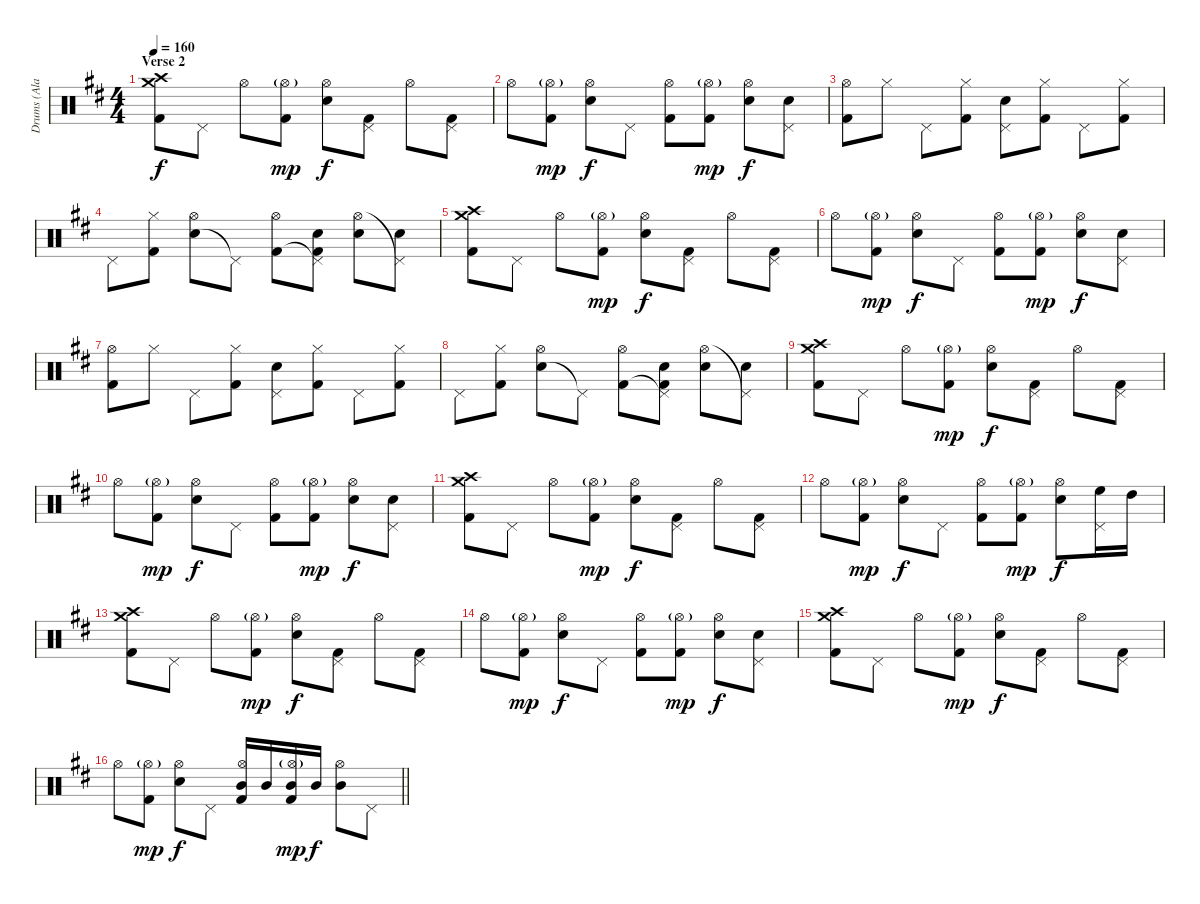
\track ("Drums (Ala Pyle)" "Drums (Ala") {instrument percussion}
\staff {score}
\articulation defaults
\ts (4 4)
\section ("" "Verse 2")
\tempo 160
\clef neutral
\ks d
("Crash medium (hit)" "Crash high (hit)" "Kick (hit) 2").8{dy f} "Pedal Hi-Hat (hit)".8 "Hi-Hat (open)".8 ("Hi-Hat (open)"{g} "Kick (hit) 2").8{dy mp} ("Snare (hit) 2" "Hi-Hat (open)").8{dy f} ("Pedal Hi-Hat (hit)" "Kick (hit) 2").8 "Hi-Hat (open)".8 ("Pedal Hi-Hat (hit)" "Kick (hit) 2").8 |
"Hi-Hat (open)".8 ("Hi-Hat (open)"{g} "Kick (hit) 2").8{dy mp} ("Snare (hit) 2" "Hi-Hat (open)").8{dy f} "Pedal Hi-Hat (hit)".8 ("Hi-Hat (open)" "Kick (hit) 2").8 ("Hi-Hat (open)"{g} "Kick (hit) 2").8{dy mp} ("Snare (hit) 2" "Hi-Hat (open)").8{dy f} ("Snare (hit) 2" "Pedal Hi-Hat (hit)").8 |
("Hi-Hat (open)" "Kick (hit) 2").8 "Hi-Hat (closed)".8 "Pedal Hi-Hat (hit)".8 ("Hi-Hat (closed)" "Kick (hit) 2").8 ("Snare (hit) 2" "Pedal Hi-Hat (hit)").8 ("Hi-Hat (closed)" "Kick (hit) 2").8 "Pedal Hi-Hat (hit)".8 ("Hi-Hat (closed)" "Kick (hit) 2").8 |
"Pedal Hi-Hat (hit)".8 ("Hi-Hat (closed)" "Kick (hit) 2").8 ("Snare (hit) 2" "Hi-Hat (open)").8 "Pedal Hi-Hat (hit)"{t}.8 ("Hi-Hat (open)" "Kick (hit) 2").8 ("Snare (hit) 2" "Pedal Hi-Hat (hit)"{t} "Kick (hit) 2").8 ("Snare (hit) 2" "Hi-Hat (open)").8 ("Snare (hit) 2" "Pedal Hi-Hat (hit)"{t}).8 |
("Crash medium (hit)" "Crash high (hit)" "Kick (hit) 2").8 "Pedal Hi-Hat (hit)".8 "Hi-Hat (open)".8 ("Hi-Hat (open)"{g} "Kick (hit) 2").8{dy mp} ("Snare (hit) 2" "Hi-Hat (open)").8{dy f} ("Pedal Hi-Hat (hit)" "Kick (hit) 2").8 "Hi-Hat (open)".8 ("Pedal Hi-Hat (hit)" "Kick (hit) 2").8 |
"Hi-Hat (open)".8 ("Hi-Hat (open)"{g} "Kick (hit) 2").8{dy mp} ("Snare (hit) 2" "Hi-Hat (open)").8{dy f} "Pedal Hi-Hat (hit)".8 ("Hi-Hat (open)" "Kick (hit) 2").8 ("Hi-Hat (open)"{g} "Kick (hit) 2").8{dy mp} ("Snare (hit) 2" "Hi-Hat (open)").8{dy f} ("Snare (hit) 2" "Pedal Hi-Hat (hit)").8 |
("Hi-Hat (open)" "Kick (hit) 2").8 "Hi-Hat (closed)".8 "Pedal Hi-Hat (hit)".8 ("Hi-Hat (closed)" "Kick (hit) 2").8 ("Snare (hit) 2" "Pedal Hi-Hat (hit)").8 ("Hi-Hat (closed)" "Kick (hit) 2").8 "Pedal Hi-Hat (hit)".8 ("Hi-Hat (closed)" "Kick (hit) 2").8 |
"Pedal Hi-Hat (hit)".8 ("Hi-Hat (closed)" "Kick (hit) 2").8 ("Snare (hit) 2" "Hi-Hat (open)").8 "Pedal Hi-Hat (hit)"{t}.8 ("Hi-Hat (open)" "Kick (hit) 2").8 ("Snare (hit) 2" "Pedal Hi-Hat (hit)"{t} "Kick (hit) 2").8 ("Snare (hit) 2" "Hi-Hat (open)").8 ("Snare (hit) 2" "Pedal Hi-Hat (hit)"{t}).8 |
("Crash medium (hit)" "Crash high (hit)" "Kick (hit) 2").8 "Pedal Hi-Hat (hit)".8 "Hi-Hat (open)".8 ("Hi-Hat (open)"{g} "Kick (hit) 2").8{dy mp} ("Snare (hit) 2" "Hi-Hat (open)").8{dy f} ("Pedal Hi-Hat (hit)" "Kick (hit) 2").8 "Hi-Hat (open)".8 ("Pedal Hi-Hat (hit)" "Kick (hit) 2").8 |
"Hi-Hat (open)".8 ("Hi-Hat (open)"{g} "Kick (hit) 2").8{dy mp} ("Snare (hit) 2" "Hi-Hat (open)").8{dy f} "Pedal Hi-Hat (hit)".8 ("Hi-Hat (open)" "Kick (hit) 2").8 ("Hi-Hat (open)"{g} "Kick (hit) 2").8{dy mp} ("Snare (hit) 2" "Hi-Hat (open)").8{dy f} ("Snare (hit) 2" "Pedal Hi-Hat (hit)").8 |
("Crash medium (hit)" "Crash high (hit)" "Kick (hit) 2").8 "Pedal Hi-Hat (hit)".8 "Hi-Hat (open)".8 ("Hi-Hat (open)"{g} "Kick (hit) 2").8{dy mp} ("Snare (hit) 2" "Hi-Hat (open)").8{dy f} ("Pedal Hi-Hat (hit)" "Kick (hit) 2").8 "Hi-Hat (open)".8 ("Pedal Hi-Hat (hit)" "Kick (hit) 2").8 |
"Hi-Hat (open)".8 ("Hi-Hat (open)"{g} "Kick (hit) 2").8{dy mp} ("Snare (hit) 2" "Hi-Hat (open)").8{dy f} "Pedal Hi-Hat (hit)".8 ("Hi-Hat (open)" "Kick (hit) 2").8 ("Hi-Hat (open)"{g} "Kick (hit) 2").8{dy mp} ("Snare (hit) 2" "Hi-Hat (open)").8{dy f} ("Pedal Hi-Hat (hit)" "High Floor Tom (hit)").16 "High Tom (hit)".16 |
("Crash medium (hit)" "Crash high (hit)" "Kick (hit) 2").8 "Pedal Hi-Hat (hit)".8 "Hi-Hat (open)".8 ("Hi-Hat (open)"{g} "Kick (hit) 2").8{dy mp} ("Snare (hit) 2" "Hi-Hat (open)").8{dy f} ("Pedal Hi-Hat (hit)" "Kick (hit) 2").8 "Hi-Hat (open)".8 ("Pedal Hi-Hat (hit)" "Kick (hit) 2").8 |
"Hi-Hat (open)".8 ("Hi-Hat (open)"{g} "Kick (hit) 2").8{dy mp} ("Snare (hit) 2" "Hi-Hat (open)").8{dy f} "Pedal Hi-Hat (hit)".8 ("Hi-Hat (open)" "Kick (hit) 2").8 ("Hi-Hat (open)"{g} "Kick (hit) 2").8{dy mp} ("Snare (hit) 2" "Hi-Hat (open)").8{dy f} ("Snare (hit) 2" "Pedal Hi-Hat (hit)").8 |
("Crash medium (hit)" "Crash high (hit)" "Kick (hit) 2").8 "Pedal Hi-Hat (hit)".8 "Hi-Hat (open)".8 ("Hi-Hat (open)"{g} "Kick (hit) 2").8{dy mp} ("Snare (hit) 2" "Hi-Hat (open)").8{dy f} ("Pedal Hi-Hat (hit)" "Kick (hit) 2").8 "Hi-Hat (open)".8 ("Pedal Hi-Hat (hit)" "Kick (hit) 2").8 |
\barLineRight lightlight "Hi-Hat (open)".8
("Hi-Hat (open)"{g} "Kick (hit) 2").8{dy mp} ("Snare (hit) 2" "Hi-Hat (open)").8{dy f} "Pedal Hi-Hat (hit)".8 ("Mid Tom (hit)" "Hi-Hat (open)" "Kick (hit) 2").16 "Mid Tom (hit)".16 ("Mid Tom (hit)" "Hi-Hat (open)"{g} "Kick (hit) 2").16{dy mp} "Mid Tom (hit)".16{dy f} ("Mid Tom (hit)" "Hi-Hat (open)").8 "Pedal Hi-Hat (hit)".8
